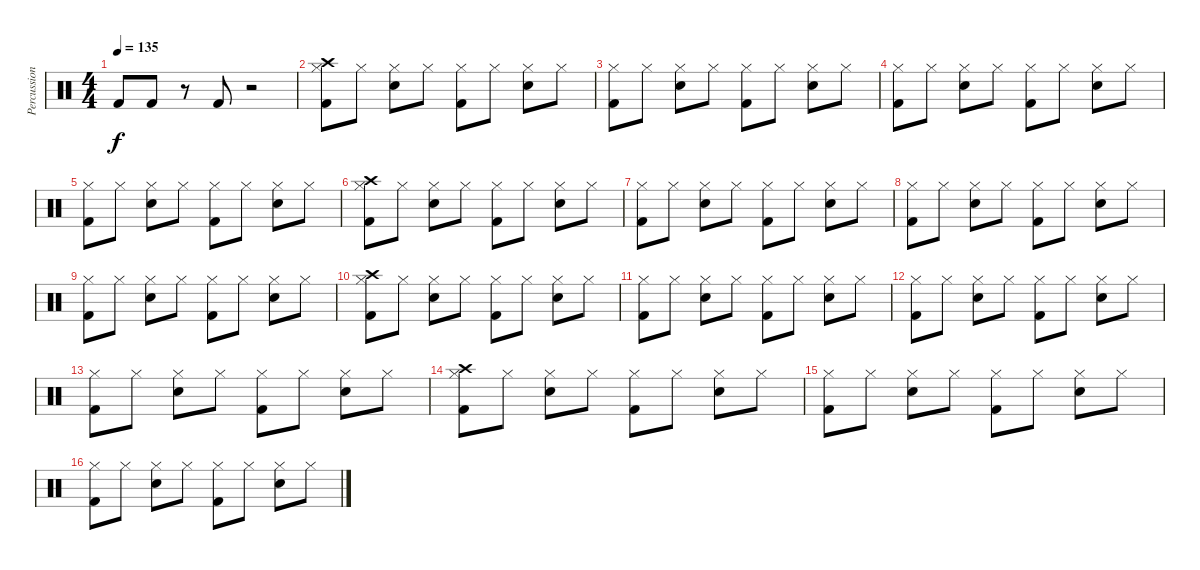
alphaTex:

\track ("Percussion" "Percussion") {instrument percussion}
\staff {score}
\articulation defaults
\ts (4 4)
\tempo 135
\clef neutral
\ks c "Kick (hit) 2".8{dy f} "Kick (hit) 2".8
r.8 "Kick (hit) 2".8 r.2 |
("Crash high (hit)" "Hi-Hat (closed)" "Kick (hit) 2").8 "Hi-Hat (closed)".8 ("Hi-Hat (closed)" "Snare (hit) 2").8 "Hi-Hat (closed)".8 ("Hi-Hat (closed)" "Kick (hit) 2").8 "Hi-Hat (closed)".8 ("Hi-Hat (closed)" "Snare (hit) 2").8 "Hi-Hat (closed)".8 |
("Hi-Hat (closed)" "Kick (hit) 2").8 "Hi-Hat (closed)".8 ("Hi-Hat (closed)" "Snare (hit) 2").8 "Hi-Hat (closed)".8 ("Hi-Hat (closed)" "Kick (hit) 2").8 "Hi-Hat (closed)".8 ("Hi-Hat (closed)" "Snare (hit) 2").8 "Hi-Hat (closed)".8 |
("Hi-Hat (closed)" "Kick (hit) 2").8 "Hi-Hat (closed)".8 ("Hi-Hat (closed)" "Snare (hit) 2").8 "Hi-Hat (closed)".8 ("Hi-Hat (closed)" "Kick (hit) 2").8 "Hi-Hat (closed)".8 ("Hi-Hat (closed)" "Snare (hit) 2").8 "Hi-Hat (closed)".8 |
("Hi-Hat (closed)" "Kick (hit) 2").8 "Hi-Hat (closed)".8 ("Hi-Hat (closed)" "Snare (hit) 2").8 "Hi-Hat (closed)".8 ("Hi-Hat (closed)" "Kick (hit) 2").8 "Hi-Hat (closed)".8 ("Hi-Hat (closed)" "Snare (hit) 2").8 "Hi-Hat (closed)".8 |
("Crash high (hit)" "Hi-Hat (closed)" "Kick (hit) 2").8 "Hi-Hat (closed)".8 ("Hi-Hat (closed)" "Snare (hit) 2").8 "Hi-Hat (closed)".8 ("Hi-Hat (closed)" "Kick (hit) 2").8 "Hi-Hat (closed)".8 ("Hi-Hat (closed)" "Snare (hit) 2").8 "Hi-Hat (closed)".8 |
("Hi-Hat (closed)" "Kick (hit) 2").8 "Hi-Hat (closed)".8 ("Hi-Hat (closed)" "Snare (hit) 2").8 "Hi-Hat (closed)".8 ("Hi-Hat (closed)" "Kick (hit) 2").8 "Hi-Hat (closed)".8 ("Hi-Hat (closed)" "Snare (hit) 2").8 "Hi-Hat (closed)".8 |
("Hi-Hat (closed)" "Kick (hit) 2").8 "Hi-Hat (closed)".8 ("Hi-Hat (closed)" "Snare (hit) 2").8 "Hi-Hat (closed)".8 ("Hi-Hat (closed)" "Kick (hit) 2").8 "Hi-Hat (closed)".8 ("Hi-Hat (closed)" "Snare (hit) 2").8 "Hi-Hat (closed)".8 |
("Hi-Hat (closed)" "Kick (hit) 2").8 "Hi-Hat (closed)".8 ("Hi-Hat (closed)" "Snare (hit) 2").8 "Hi-Hat (closed)".8 ("Hi-Hat (closed)" "Kick (hit) 2").8 "Hi-Hat (closed)".8 ("Hi-Hat (closed)" "Snare (hit) 2").8 "Hi-Hat (closed)".8 |
("Crash high (hit)" "Hi-Hat (closed)" "Kick (hit) 2").8 "Hi-Hat (closed)".8 ("Hi-Hat (closed)" "Snare (hit) 2").8 "Hi-Hat (closed)".8 ("Hi-Hat (closed)" "Kick (hit) 2").8 "Hi-Hat (closed)".8 ("Hi-Hat (closed)" "Snare (hit) 2").8 "Hi-Hat (closed)".8 |
("Hi-Hat (closed)" "Kick (hit) 2").8 "Hi-Hat (closed)".8 ("Hi-Hat (closed)" "Snare (hit) 2").8 "Hi-Hat (closed)".8 ("Hi-Hat (closed)" "Kick (hit) 2").8 "Hi-Hat (closed)".8 ("Hi-Hat (closed)" "Snare (hit) 2").8 "Hi-Hat (closed)".8 |
("Hi-Hat (closed)" "Kick (hit) 2").8 "Hi-Hat (closed)".8 ("Hi-Hat (closed)" "Snare (hit) 2").8 "Hi-Hat (closed)".8 ("Hi-Hat (closed)" "Kick (hit) 2").8 "Hi-Hat (closed)".8 ("Hi-Hat (closed)" "Snare (hit) 2").8 "Hi-Hat (closed)".8 |
("Hi-Hat (closed)" "Kick (hit) 2").8 "Hi-Hat (closed)".8 ("Hi-Hat (closed)" "Snare (hit) 2").8 "Hi-Hat (closed)".8 ("Hi-Hat (closed)" "Kick (hit) 2").8 "Hi-Hat (closed)".8 ("Hi-Hat (closed)" "Snare (hit) 2").8 "Hi-Hat (closed)".8 |
("Crash high (hit)" "Hi-Hat (closed)" "Kick (hit) 2").8 "Hi-Hat (closed)".8 ("Hi-Hat (closed)" "Snare (hit) 2").8 "Hi-Hat (closed)".8 ("Hi-Hat (closed)" "Kick (hit) 2").8 "Hi-Hat (closed)".8 ("Hi-Hat (closed)" "Snare (hit) 2").8 "Hi-Hat (closed)".8 |
("Hi-Hat (closed)" "Kick (hit) 2").8 "Hi-Hat (closed)".8 ("Hi-Hat (closed)" "Snare (hit) 2").8 "Hi-Hat (closed)".8 ("Hi-Hat (closed)" "Kick (hit) 2").8 "Hi-Hat (closed)".8 ("Hi-Hat (closed)" "Snare (hit) 2").8 "Hi-Hat (closed)".8 |
("Hi-Hat (closed)" "Kick (hit) 2").8 "Hi-Hat (closed)".8 ("Hi-Hat (closed)" "Snare (hit) 2").8 "Hi-Hat (closed)".8 ("Hi-Hat (closed)" "Kick (hit) 2").8 "Hi-Hat (closed)".8 ("Hi-Hat (closed)" "Snare (hit) 2").8 "Hi-Hat (closed)".8
